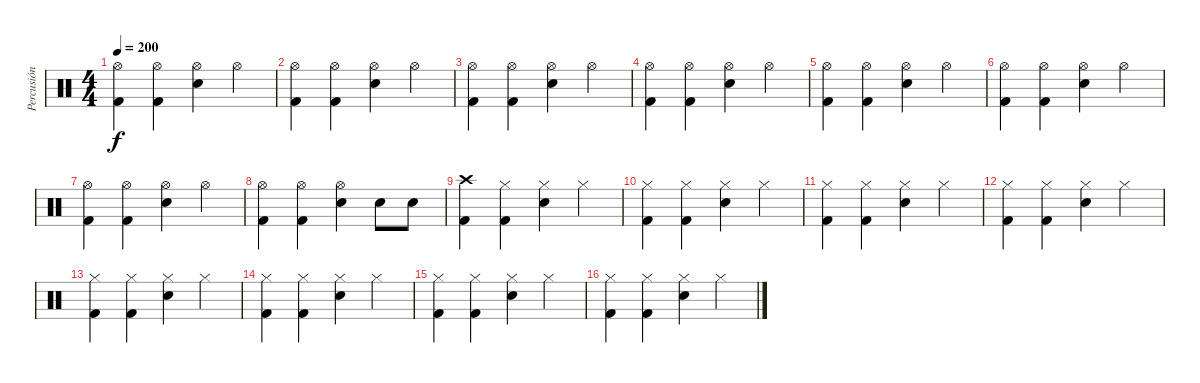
\track ("Percusión" "Percusión") {instrument percussion}
\staff {score}
\articulation defaults
\ts (4 4)
\tempo 200
\clef neutral
\ks c
("Hi-Hat (open)" "Kick (hit) 2").4{dy f} ("Hi-Hat (open)" "Kick (hit) 2").4 ("Hi-Hat (open)" "Electric Snare (hit)").4 "Hi-Hat (open)".4 |
("Hi-Hat (open)" "Kick (hit) 2").4 ("Hi-Hat (open)" "Kick (hit) 2").4 ("Hi-Hat (open)" "Electric Snare (hit)").4 "Hi-Hat (open)".4 |
("Hi-Hat (open)" "Kick (hit) 2").4 ("Hi-Hat (open)" "Kick (hit) 2").4 ("Hi-Hat (open)" "Electric Snare (hit)").4 "Hi-Hat (open)".4 |
("Hi-Hat (open)" "Kick (hit) 2").4 ("Hi-Hat (open)" "Kick (hit) 2").4 ("Hi-Hat (open)" "Electric Snare (hit)").4 "Hi-Hat (open)".4 |
("Hi-Hat (open)" "Kick (hit) 2").4 ("Hi-Hat (open)" "Kick (hit) 2").4 ("Hi-Hat (open)" "Electric Snare (hit)").4 "Hi-Hat (open)".4 |
("Hi-Hat (open)" "Kick (hit) 2").4 ("Hi-Hat (open)" "Kick (hit) 2").4 ("Hi-Hat (open)" "Electric Snare (hit)").4 "Hi-Hat (open)".4 |
("Hi-Hat (open)" "Kick (hit) 2").4 ("Hi-Hat (open)" "Kick (hit) 2").4 ("Hi-Hat (open)" "Electric Snare (hit)").4 "Hi-Hat (open)".4 |
("Hi-Hat (open)" "Kick (hit) 2").4 ("Hi-Hat (open)" "Kick (hit) 2").4 ("Hi-Hat (open)" "Electric Snare (hit)").4 "Electric Snare (hit)".8 "Electric Snare (hit)".8 |
("Crash high (hit)" "Kick (hit) 2").4 ("Hi-Hat (closed)" "Kick (hit) 2").4 ("Hi-Hat (closed)" "Electric Snare (hit)").4 "Hi-Hat (closed)".4 |
("Hi-Hat (closed)" "Kick (hit) 2").4 ("Hi-Hat (closed)" "Kick (hit) 2").4 ("Hi-Hat (closed)" "Electric Snare (hit)").4 "Hi-Hat (closed)".4 |
("Hi-Hat (closed)" "Kick (hit) 2").4 ("Hi-Hat (closed)" "Kick (hit) 2").4 ("Hi-Hat (closed)" "Electric Snare (hit)").4 "Hi-Hat (closed)".4 |
("Hi-Hat (closed)" "Kick (hit) 2").4 ("Hi-Hat (closed)" "Kick (hit) 2").4 ("Hi-Hat (closed)" "Electric Snare (hit)").4 "Hi-Hat (closed)".4 |
("Hi-Hat (closed)" "Kick (hit) 2").4 ("Hi-Hat (closed)" "Kick (hit) 2").4 ("Hi-Hat (closed)" "Electric Snare (hit)").4 "Hi-Hat (closed)".4 |
("Hi-Hat (closed)" "Kick (hit) 2").4 ("Hi-Hat (closed)" "Kick (hit) 2").4 ("Hi-Hat (closed)" "Electric Snare (hit)").4 "Hi-Hat (closed)".4 |
("Hi-Hat (closed)" "Kick (hit) 2").4 ("Hi-Hat (closed)" "Kick (hit) 2").4 ("Hi-Hat (closed)" "Electric Snare (hit)").4 "Hi-Hat (closed)".4 |
("Hi-Hat (closed)" "Kick (hit) 2").4 ("Hi-Hat (closed)" "Kick (hit) 2").4 ("Hi-Hat (closed)" "Electric Snare (hit)").4 "Hi-Hat (closed)".4
